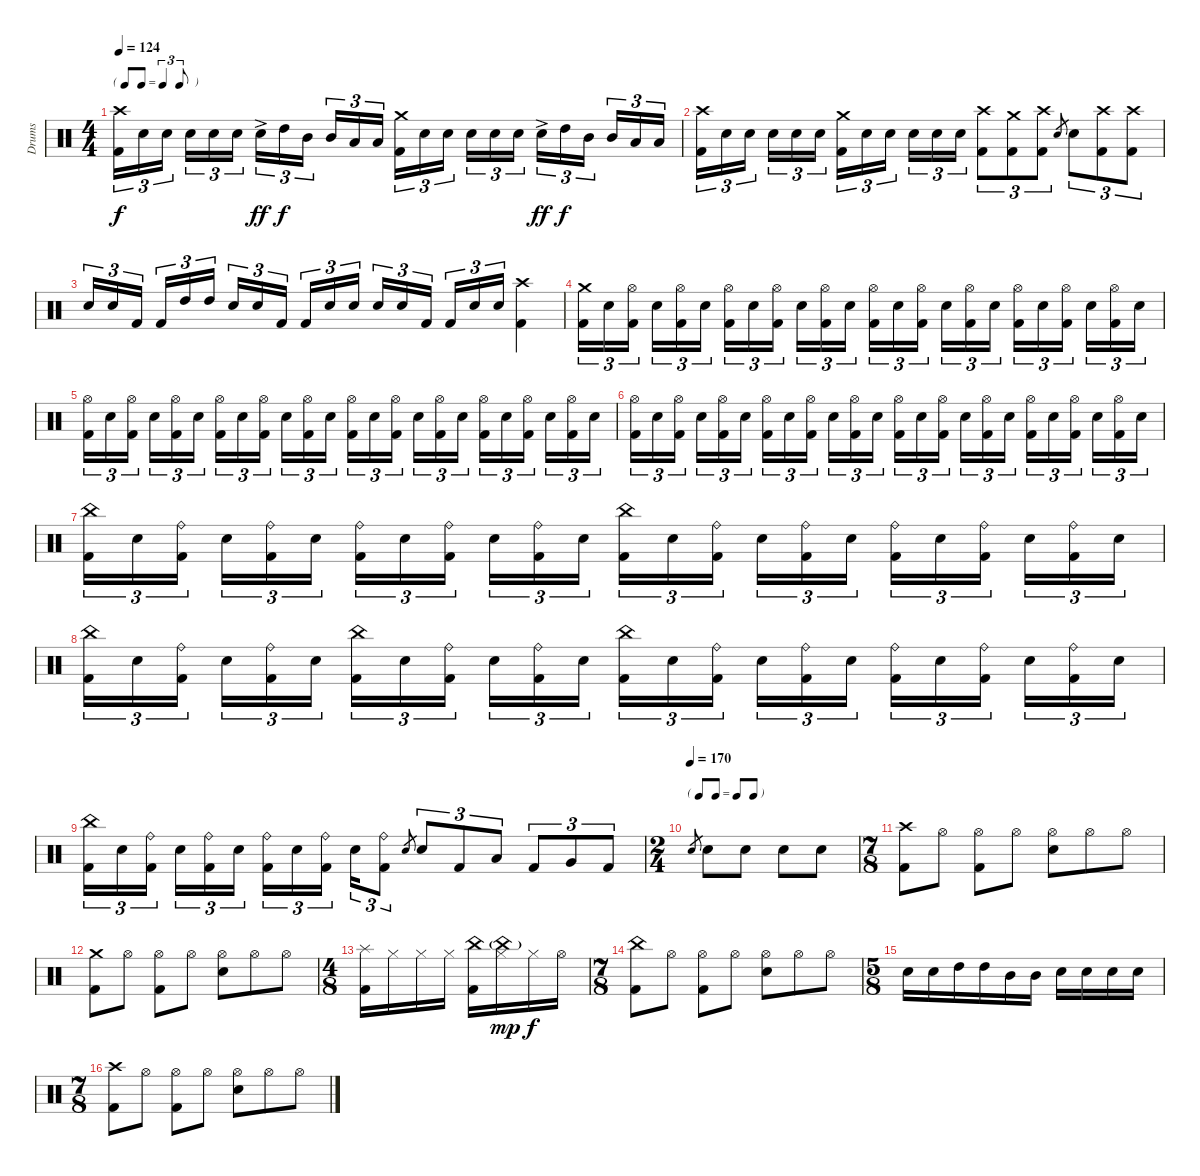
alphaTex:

\track ("Drums" "Drums") {instrument percussion}
\staff {score}
\articulation defaults
\ts (4 4)
\tf triplet8th
\tempo 124
\clef neutral
\ks c
("Crash high (hit)" "Kick (hit) 2").16{tu (3 2) dy f} "Electric Snare (hit)".16{tu (3 2)} "Electric Snare (hit)".16{tu (3 2) beam splitsecondary} "Electric Snare (hit)".16{tu (3 2)} "Electric Snare (hit)".16{tu (3 2)} "Electric Snare (hit)".16{tu (3 2)} "Electric Snare (hit)"{ac}.16{tu (3 2) dy ff} "High Tom (hit)".16{tu (3 2) dy f} "Mid Tom (hit)".16{tu (3 2) beam splitsecondary} "Mid Tom (hit)".16{tu (3 2)} "Low Tom (hit)".16{tu (3 2)} "Low Tom (hit)".16{tu (3 2)} ("Crash medium (hit)" "Kick (hit) 2").16{tu (3 2)} "Electric Snare (hit)".16{tu (3 2)} "Electric Snare (hit)".16{tu (3 2) beam splitsecondary} "Electric Snare (hit)".16{tu (3 2)} "Electric Snare (hit)".16{tu (3 2)} "Electric Snare (hit)".16{tu (3 2)} "Electric Snare (hit)"{ac}.16{tu (3 2) dy ff} "High Tom (hit)".16{tu (3 2) dy f} "Mid Tom (hit)".16{tu (3 2) beam splitsecondary} "Mid Tom (hit)".16{tu (3 2)} "Low Tom (hit)".16{tu (3 2)} "Low Tom (hit)".16{tu (3 2)} |
("Crash high (hit)" "Kick (hit) 2").16{tu (3 2)} "Electric Snare (hit)".16{tu (3 2)} "Electric Snare (hit)".16{tu (3 2) beam splitsecondary} "Electric Snare (hit)".16{tu (3 2)} "Electric Snare (hit)".16{tu (3 2)} "Electric Snare (hit)".16{tu (3 2)} ("Crash medium (hit)" "Kick (hit) 2").16{tu (3 2)} "Electric Snare (hit)".16{tu (3 2)} "Electric Snare (hit)".16{tu (3 2) beam splitsecondary} "Electric Snare (hit)".16{tu (3 2)} "Electric Snare (hit)".16{tu (3 2)} "Electric Snare (hit)".16{tu (3 2)} ("Crash high (hit)" "Kick (hit) 2").8{tu (3 2)} ("Crash medium (hit)" "Kick (hit) 2").8{tu (3 2)} ("Crash high (hit)" "Kick (hit) 2").8{tu (3 2)} "Electric Snare (hit)".8{gr} "Electric Snare (hit)".8{tu (3 2)} ("Crash high (hit)" "Kick (hit) 2").8{tu (3 2)} ("Crash high (hit)" "Kick (hit) 2").8{tu (3 2)} |
"Electric Snare (hit)".16{tu (3 2)} "Electric Snare (hit)".16{tu (3 2)} "Kick (hit) 2".16{tu (3 2) beam splitsecondary} "Kick (hit) 2".16{tu (3 2)} "High Tom (hit)".16{tu (3 2)} "High Tom (hit)".16{tu (3 2)} "Electric Snare (hit)".16{tu (3 2)} "Electric Snare (hit)".16{tu (3 2)} "Kick (hit) 2".16{tu (3 2) beam splitsecondary} "Kick (hit) 2".16{tu (3 2)} "Electric Snare (hit)".16{tu (3 2)} "Electric Snare (hit)".16{tu (3 2)} "Electric Snare (hit)".16{tu (3 2)} "Electric Snare (hit)".16{tu (3 2)} "Kick (hit) 2".16{tu (3 2) beam splitsecondary} "Kick (hit) 2".16{tu (3 2)} "Electric Snare (hit)".16{tu (3 2)} "Electric Snare (hit)".16{tu (3 2)} ("Crash high (hit)" "Kick (hit) 2").4 |
("Crash medium (hit)" "Kick (hit) 2").16{tu (3 2)} "Electric Snare (hit)".16{tu (3 2)} ("Hi-Hat (open)" "Kick (hit) 2").16{tu (3 2) beam splitsecondary} "Electric Snare (hit)".16{tu (3 2)} ("Hi-Hat (open)" "Kick (hit) 2").16{tu (3 2)} "Electric Snare (hit)".16{tu (3 2)} ("Hi-Hat (open)" "Kick (hit) 2").16{tu (3 2)} "Electric Snare (hit)".16{tu (3 2)} ("Hi-Hat (open)" "Kick (hit) 2").16{tu (3 2) beam splitsecondary} "Electric Snare (hit)".16{tu (3 2)} ("Hi-Hat (open)" "Kick (hit) 2").16{tu (3 2)} "Electric Snare (hit)".16{tu (3 2)} ("Hi-Hat (open)" "Kick (hit) 2").16{tu (3 2)} "Electric Snare (hit)".16{tu (3 2)} ("Hi-Hat (open)" "Kick (hit) 2").16{tu (3 2) beam splitsecondary} "Electric Snare (hit)".16{tu (3 2)} ("Hi-Hat (open)" "Kick (hit) 2").16{tu (3 2)} "Electric Snare (hit)".16{tu (3 2)} ("Hi-Hat (open)" "Kick (hit) 2").16{tu (3 2)} "Electric Snare (hit)".16{tu (3 2)} ("Hi-Hat (open)" "Kick (hit) 2").16{tu (3 2) beam splitsecondary} "Electric Snare (hit)".16{tu (3 2)} ("Hi-Hat (open)" "Kick (hit) 2").16{tu (3 2)} "Electric Snare (hit)".16{tu (3 2)} |
("Hi-Hat (open)" "Kick (hit) 2").16{tu (3 2)} "Electric Snare (hit)".16{tu (3 2)} ("Hi-Hat (open)" "Kick (hit) 2").16{tu (3 2) beam splitsecondary} "Electric Snare (hit)".16{tu (3 2)} ("Hi-Hat (open)" "Kick (hit) 2").16{tu (3 2)} "Electric Snare (hit)".16{tu (3 2)} ("Hi-Hat (open)" "Kick (hit) 2").16{tu (3 2)} "Electric Snare (hit)".16{tu (3 2)} ("Hi-Hat (open)" "Kick (hit) 2").16{tu (3 2) beam splitsecondary} "Electric Snare (hit)".16{tu (3 2)} ("Hi-Hat (open)" "Kick (hit) 2").16{tu (3 2)} "Electric Snare (hit)".16{tu (3 2)} ("Hi-Hat (open)" "Kick (hit) 2").16{tu (3 2)} "Electric Snare (hit)".16{tu (3 2)} ("Hi-Hat (open)" "Kick (hit) 2").16{tu (3 2) beam splitsecondary} "Electric Snare (hit)".16{tu (3 2)} ("Hi-Hat (open)" "Kick (hit) 2").16{tu (3 2)} "Electric Snare (hit)".16{tu (3 2)} ("Hi-Hat (open)" "Kick (hit) 2").16{tu (3 2)} "Electric Snare (hit)".16{tu (3 2)} ("Hi-Hat (open)" "Kick (hit) 2").16{tu (3 2) beam splitsecondary} "Electric Snare (hit)".16{tu (3 2)} ("Hi-Hat (open)" "Kick (hit) 2").16{tu (3 2)} "Electric Snare (hit)".16{tu (3 2)} |
("Hi-Hat (open)" "Kick (hit) 2").16{tu (3 2)} "Electric Snare (hit)".16{tu (3 2)} ("Hi-Hat (open)" "Kick (hit) 2").16{tu (3 2) beam splitsecondary} "Electric Snare (hit)".16{tu (3 2)} ("Hi-Hat (open)" "Kick (hit) 2").16{tu (3 2)} "Electric Snare (hit)".16{tu (3 2)} ("Hi-Hat (open)" "Kick (hit) 2").16{tu (3 2)} "Electric Snare (hit)".16{tu (3 2)} ("Hi-Hat (open)" "Kick (hit) 2").16{tu (3 2) beam splitsecondary} "Electric Snare (hit)".16{tu (3 2)} ("Hi-Hat (open)" "Kick (hit) 2").16{tu (3 2)} "Electric Snare (hit)".16{tu (3 2)} ("Hi-Hat (open)" "Kick (hit) 2").16{tu (3 2)} "Electric Snare (hit)".16{tu (3 2)} ("Hi-Hat (open)" "Kick (hit) 2").16{tu (3 2) beam splitsecondary} "Electric Snare (hit)".16{tu (3 2)} ("Hi-Hat (open)" "Kick (hit) 2").16{tu (3 2)} "Electric Snare (hit)".16{tu (3 2)} ("Hi-Hat (open)" "Kick (hit) 2").16{tu (3 2)} "Electric Snare (hit)".16{tu (3 2)} ("Hi-Hat (open)" "Kick (hit) 2").16{tu (3 2) beam splitsecondary} "Electric Snare (hit)".16{tu (3 2)} ("Hi-Hat (open)" "Kick (hit) 2").16{tu (3 2)} "Electric Snare (hit)".16{tu (3 2)} |
("China (hit)" "Kick (hit) 2").16{tu (3 2)} "Electric Snare (hit)".16{tu (3 2)} ("Ride (bell)" "Kick (hit) 2").16{tu (3 2) beam splitsecondary} "Electric Snare (hit)".16{tu (3 2)} ("Ride (bell)" "Kick (hit) 2").16{tu (3 2)} "Electric Snare (hit)".16{tu (3 2)} ("Ride (bell)" "Kick (hit) 2").16{tu (3 2)} "Electric Snare (hit)".16{tu (3 2)} ("Ride (bell)" "Kick (hit) 2").16{tu (3 2) beam splitsecondary} "Electric Snare (hit)".16{tu (3 2)} ("Ride (bell)" "Kick (hit) 2").16{tu (3 2)} "Electric Snare (hit)".16{tu (3 2)} ("China (hit)" "Kick (hit) 2").16{tu (3 2)} "Electric Snare (hit)".16{tu (3 2)} ("Ride (bell)" "Kick (hit) 2").16{tu (3 2) beam splitsecondary} "Electric Snare (hit)".16{tu (3 2)} ("Ride (bell)" "Kick (hit) 2").16{tu (3 2)} "Electric Snare (hit)".16{tu (3 2)} ("Ride (bell)" "Kick (hit) 2").16{tu (3 2)} "Electric Snare (hit)".16{tu (3 2)} ("Ride (bell)" "Kick (hit) 2").16{tu (3 2) beam splitsecondary} "Electric Snare (hit)".16{tu (3 2)} ("Ride (bell)" "Kick (hit) 2").16{tu (3 2)} "Electric Snare (hit)".16{tu (3 2)} |
("China (hit)" "Kick (hit) 2").16{tu (3 2)} "Electric Snare (hit)".16{tu (3 2)} ("Ride (bell)" "Kick (hit) 2").16{tu (3 2) beam splitsecondary} "Electric Snare (hit)".16{tu (3 2)} ("Ride (bell)" "Kick (hit) 2").16{tu (3 2)} "Electric Snare (hit)".16{tu (3 2)} ("China (hit)" "Kick (hit) 2").16{tu (3 2)} "Electric Snare (hit)".16{tu (3 2)} ("Ride (bell)" "Kick (hit) 2").16{tu (3 2) beam splitsecondary} "Electric Snare (hit)".16{tu (3 2)} ("Ride (bell)" "Kick (hit) 2").16{tu (3 2)} "Electric Snare (hit)".16{tu (3 2)} ("China (hit)" "Kick (hit) 2").16{tu (3 2)} "Electric Snare (hit)".16{tu (3 2)} ("Ride (bell)" "Kick (hit) 2").16{tu (3 2) beam splitsecondary} "Electric Snare (hit)".16{tu (3 2)} ("Ride (bell)" "Kick (hit) 2").16{tu (3 2)} "Electric Snare (hit)".16{tu (3 2)} ("Ride (bell)" "Kick (hit) 2").16{tu (3 2)} "Electric Snare (hit)".16{tu (3 2)} ("Ride (bell)" "Kick (hit) 2").16{tu (3 2) beam splitsecondary} "Electric Snare (hit)".16{tu (3 2)} ("Ride (bell)" "Kick (hit) 2").16{tu (3 2)} "Electric Snare (hit)".16{tu (3 2)} |
("China (hit)" "Kick (hit) 2").16{tu (3 2)} "Electric Snare (hit)".16{tu (3 2)} ("Ride (bell)" "Kick (hit) 2").16{tu (3 2) beam splitsecondary} "Electric Snare (hit)".16{tu (3 2)} ("Ride (bell)" "Kick (hit) 2").16{tu (3 2)} "Electric Snare (hit)".16{tu (3 2)} ("Ride (bell)" "Kick (hit) 2").16{tu (3 2)} "Electric Snare (hit)".16{tu (3 2)} ("Ride (bell)" "Kick (hit) 2").16{tu (3 2) beam splitsecondary} "Electric Snare (hit)".16{tu (3 2)} ("Ride (bell)" "Kick (hit) 2").8{tu (3 2)} "Electric Snare (hit)".8{gr} "Electric Snare (hit)".8{tu (3 2)} "Kick (hit) 2".8{tu (3 2)} "Low Tom (hit)".8{tu (3 2)} "Kick (hit) 2".8{tu (3 2)} "Very Low Tom (hit)".8{tu (3 2)} "Kick (hit) 2".8{tu (3 2)} |
\ts (2 4)
\tf none
\tempo (170)
"Electric Snare (hit)".8{gr} "Electric Snare (hit)".8 "Electric Snare (hit)".8 "Electric Snare (hit)".8 "Electric Snare (hit)".8 |
\ts (7 8)
("Crash high (hit)" "Kick (hit) 2").8{beam merge} "Hi-Hat (open)".8{beam split} ("Hi-Hat (open)" "Kick (hit) 2").8{beam merge} "Hi-Hat (open)".8{beam split} ("Hi-Hat (open)" "Electric Snare (hit)").8{beam merge} "Hi-Hat (open)".8{beam merge} "Hi-Hat (open)".8 |
("Crash medium (hit)" "Kick (hit) 2").8{beam merge} "Hi-Hat (open)".8{beam split} ("Hi-Hat (open)" "Kick (hit) 2").8{beam merge} "Hi-Hat (open)".8{beam split} ("Hi-Hat (open)" "Electric Snare (hit)").8{beam merge} "Hi-Hat (open)".8{beam merge} "Hi-Hat (open)".8 |
\ts (4 8)
("Splash (hit)" "Kick (hit) 2").16 "Hi-Hat (closed)".16{beam merge} "Hi-Hat (closed)".16 "Hi-Hat (closed)".16{beam split} ("China (hit)" "Kick (hit) 2").16 ("Hi-Hat (closed)" "China (hit)"{g}).16{dy mp beam merge} "Hi-Hat (closed)".16{dy f} "Hi-Hat (open)".16 |
\ts (7 8)
("China (hit)" "Kick (hit) 2").8{beam merge} "Hi-Hat (open)".8{beam split} ("Hi-Hat (open)" "Kick (hit) 2").8{beam merge} "Hi-Hat (open)".8{beam split} ("Hi-Hat (open)" "Electric Snare (hit)").8{beam merge} "Hi-Hat (open)".8{beam merge} "Hi-Hat (open)".8 |
\ts (5 8)
"Electric Snare (hit)".16 "Electric Snare (hit)".16{beam merge} "High Tom (hit)".16 "High Tom (hit)".16{beam merge} "Mid Tom (hit)".16 "Mid Tom (hit)".16{beam split} "Electric Snare (hit)".16 "Electric Snare (hit)".16{beam merge} "Electric Snare (hit)".16 "Electric Snare (hit)".16 |
\ts (7 8)
("Crash high (hit)" "Kick (hit) 2").8{beam merge} "Hi-Hat (open)".8{beam split} ("Hi-Hat (open)" "Kick (hit) 2").8{beam merge} "Hi-Hat (open)".8{beam split} ("Hi-Hat (open)" "Electric Snare (hit)").8{beam merge} "Hi-Hat (open)".8{beam merge} "Hi-Hat (open)".8
